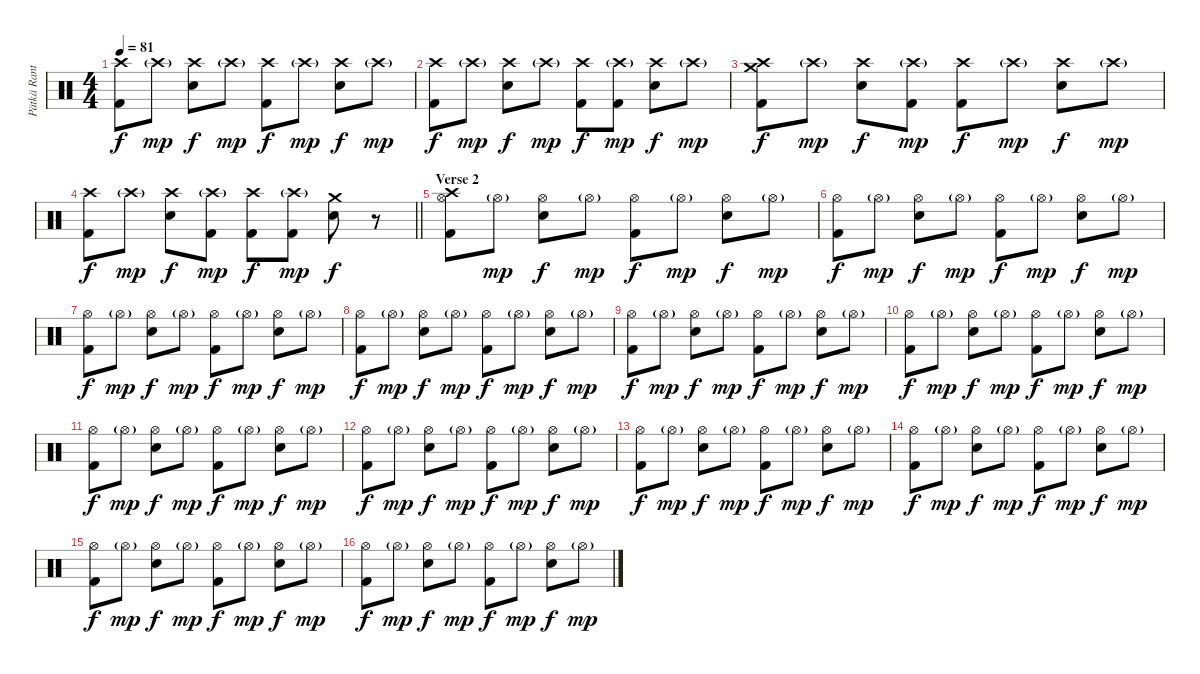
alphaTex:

\track ("Pätkä Rantala (Drums)" "Pätkä Rant") {instrument percussion}
\staff {score}
\articulation defaults
\ts (4 4)
\tempo 81
\clef neutral
\ks c
("Crash high (hit)" "Kick (hit) 2").8{dy f} "Crash high (hit)"{g}.8{dy mp} ("Crash high (hit)" "Snare (hit) 2").8{dy f} "Crash high (hit)"{g}.8{dy mp} ("Crash high (hit)" "Kick (hit) 2").8{dy f} "Crash high (hit)"{g}.8{dy mp} ("Crash high (hit)" "Snare (hit) 2").8{dy f} "Crash high (hit)"{g}.8{dy mp} |
("Crash high (hit)" "Kick (hit) 2").8{dy f} "Crash high (hit)"{g}.8{dy mp} ("Crash high (hit)" "Snare (hit) 2").8{dy f} "Crash high (hit)"{g}.8{dy mp} ("Crash high (hit)" "Kick (hit) 2").8{dy f} ("Crash high (hit)"{g} "Kick (hit) 2").8{dy mp} ("Crash high (hit)" "Snare (hit) 2").8{dy f} "Crash high (hit)"{g}.8{dy mp} |
("Crash medium (hit)" "Crash high (hit)" "Kick (hit) 2").8{dy f} "Crash high (hit)"{g}.8{dy mp} ("Crash high (hit)" "Snare (hit) 2").8{dy f} ("Crash high (hit)"{g} "Kick (hit) 2").8{dy mp} ("Crash high (hit)" "Kick (hit) 2").8{dy f} "Crash high (hit)"{g}.8{dy mp} ("Crash high (hit)" "Snare (hit) 2").8{dy f} "Crash high (hit)"{g}.8{dy mp} |
\barLineRight lightlight
("Crash high (hit)" "Kick (hit) 2").8{dy f} "Crash high (hit)"{g}.8{dy mp} ("Crash high (hit)" "Snare (hit) 2").8{dy f} ("Crash high (hit)"{g} "Kick (hit) 2").8{dy mp} ("Crash high (hit)" "Kick (hit) 2").8{dy f} ("Crash high (hit)"{g} "Kick (hit) 2").8{dy mp} ("Crash medium (hit)" "Snare (hit) 2").8{dy f} r.8 |
\section ("" "Verse 2")
("Crash high (hit)" "Hi-Hat (open)" "Kick (hit) 2").8 "Hi-Hat (open)"{g}.8{dy mp} ("Hi-Hat (open)" "Snare (hit) 2").8{dy f} "Hi-Hat (open)"{g}.8{dy mp} ("Hi-Hat (open)" "Kick (hit) 2").8{dy f} "Hi-Hat (open)"{g}.8{dy mp} ("Hi-Hat (open)" "Snare (hit) 2").8{dy f} "Hi-Hat (open)"{g}.8{dy mp} |
("Hi-Hat (open)" "Kick (hit) 2").8{dy f} "Hi-Hat (open)"{g}.8{dy mp} ("Hi-Hat (open)" "Snare (hit) 2").8{dy f} "Hi-Hat (open)"{g}.8{dy mp} ("Hi-Hat (open)" "Kick (hit) 2").8{dy f} "Hi-Hat (open)"{g}.8{dy mp} ("Hi-Hat (open)" "Snare (hit) 2").8{dy f} "Hi-Hat (open)"{g}.8{dy mp} |
("Hi-Hat (open)" "Kick (hit) 2").8{dy f} "Hi-Hat (open)"{g}.8{dy mp} ("Hi-Hat (open)" "Snare (hit) 2").8{dy f} "Hi-Hat (open)"{g}.8{dy mp} ("Hi-Hat (open)" "Kick (hit) 2").8{dy f} "Hi-Hat (open)"{g}.8{dy mp} ("Hi-Hat (open)" "Snare (hit) 2").8{dy f} "Hi-Hat (open)"{g}.8{dy mp} |
("Hi-Hat (open)" "Kick (hit) 2").8{dy f} "Hi-Hat (open)"{g}.8{dy mp} ("Hi-Hat (open)" "Snare (hit) 2").8{dy f} "Hi-Hat (open)"{g}.8{dy mp} ("Hi-Hat (open)" "Kick (hit) 2").8{dy f} "Hi-Hat (open)"{g}.8{dy mp} ("Hi-Hat (open)" "Snare (hit) 2").8{dy f} "Hi-Hat (open)"{g}.8{dy mp} |
("Hi-Hat (open)" "Kick (hit) 2").8{dy f} "Hi-Hat (open)"{g}.8{dy mp} ("Hi-Hat (open)" "Snare (hit) 2").8{dy f} "Hi-Hat (open)"{g}.8{dy mp} ("Hi-Hat (open)" "Kick (hit) 2").8{dy f} "Hi-Hat (open)"{g}.8{dy mp} ("Hi-Hat (open)" "Snare (hit) 2").8{dy f} "Hi-Hat (open)"{g}.8{dy mp} |
("Hi-Hat (open)" "Kick (hit) 2").8{dy f} "Hi-Hat (open)"{g}.8{dy mp} ("Hi-Hat (open)" "Snare (hit) 2").8{dy f} "Hi-Hat (open)"{g}.8{dy mp} ("Hi-Hat (open)" "Kick (hit) 2").8{dy f} "Hi-Hat (open)"{g}.8{dy mp} ("Hi-Hat (open)" "Snare (hit) 2").8{dy f} "Hi-Hat (open)"{g}.8{dy mp} |
("Hi-Hat (open)" "Kick (hit) 2").8{dy f} "Hi-Hat (open)"{g}.8{dy mp} ("Hi-Hat (open)" "Snare (hit) 2").8{dy f} "Hi-Hat (open)"{g}.8{dy mp} ("Hi-Hat (open)" "Kick (hit) 2").8{dy f} "Hi-Hat (open)"{g}.8{dy mp} ("Hi-Hat (open)" "Snare (hit) 2").8{dy f} "Hi-Hat (open)"{g}.8{dy mp} |
("Hi-Hat (open)" "Kick (hit) 2").8{dy f} "Hi-Hat (open)"{g}.8{dy mp} ("Hi-Hat (open)" "Snare (hit) 2").8{dy f} "Hi-Hat (open)"{g}.8{dy mp} ("Hi-Hat (open)" "Kick (hit) 2").8{dy f} "Hi-Hat (open)"{g}.8{dy mp} ("Hi-Hat (open)" "Snare (hit) 2").8{dy f} "Hi-Hat (open)"{g}.8{dy mp} |
("Hi-Hat (open)" "Kick (hit) 2").8{dy f} "Hi-Hat (open)"{g}.8{dy mp} ("Hi-Hat (open)" "Snare (hit) 2").8{dy f} "Hi-Hat (open)"{g}.8{dy mp} ("Hi-Hat (open)" "Kick (hit) 2").8{dy f} "Hi-Hat (open)"{g}.8{dy mp} ("Hi-Hat (open)" "Snare (hit) 2").8{dy f} "Hi-Hat (open)"{g}.8{dy mp} |
("Hi-Hat (open)" "Kick (hit) 2").8{dy f} "Hi-Hat (open)"{g}.8{dy mp} ("Hi-Hat (open)" "Snare (hit) 2").8{dy f} "Hi-Hat (open)"{g}.8{dy mp} ("Hi-Hat (open)" "Kick (hit) 2").8{dy f} "Hi-Hat (open)"{g}.8{dy mp} ("Hi-Hat (open)" "Snare (hit) 2").8{dy f} "Hi-Hat (open)"{g}.8{dy mp} |
("Hi-Hat (open)" "Kick (hit) 2").8{dy f} "Hi-Hat (open)"{g}.8{dy mp} ("Hi-Hat (open)" "Snare (hit) 2").8{dy f} "Hi-Hat (open)"{g}.8{dy mp} ("Hi-Hat (open)" "Kick (hit) 2").8{dy f} "Hi-Hat (open)"{g}.8{dy mp} ("Hi-Hat (open)" "Snare (hit) 2").8{dy f} "Hi-Hat (open)"{g}.8{dy mp} |
("Hi-Hat (open)" "Kick (hit) 2").8{dy f} "Hi-Hat (open)"{g}.8{dy mp} ("Hi-Hat (open)" "Snare (hit) 2").8{dy f} "Hi-Hat (open)"{g}.8{dy mp} ("Hi-Hat (open)" "Kick (hit) 2").8{dy f} "Hi-Hat (open)"{g}.8{dy mp} ("Hi-Hat (open)" "Snare (hit) 2").8{dy f} "Hi-Hat (open)"{g}.8{dy mp}
